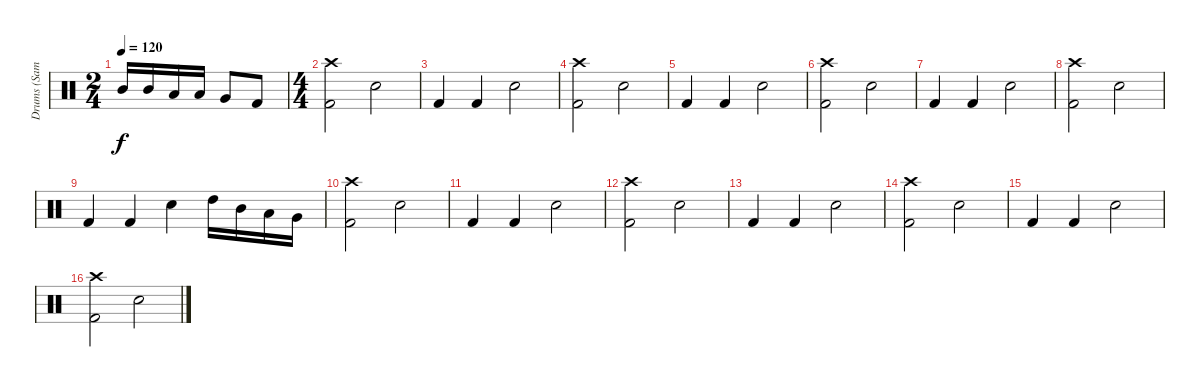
\track ("Drums (Sami Karppinen)" "Drums (Sam") {instrument percussion}
\staff {score}
\articulation defaults
\ts (2 4)
\tempo 120
\clef neutral
\ks c "Mid Tom (hit)".16{dy f} "Mid Tom (hit)".16 "Low Tom (hit)".16 "Low Tom (hit)".16 "Very Low Tom (hit)".8 "Kick (hit) 2".8
|
\ts (4 4)
("Crash high (hit)" "Kick (hit) 2").2 "Electric Snare (hit)".2 |
"Kick (hit) 2".4 "Kick (hit) 2".4 "Electric Snare (hit)".2 |
("Crash high (hit)" "Kick (hit) 2").2 "Electric Snare (hit)".2 |
"Kick (hit) 2".4 "Kick (hit) 2".4 "Electric Snare (hit)".2 |
("Crash high (hit)" "Kick (hit) 2").2 "Electric Snare (hit)".2 |
"Kick (hit) 2".4 "Kick (hit) 2".4 "Electric Snare (hit)".2 |
("Crash high (hit)" "Kick (hit) 2").2 "Electric Snare (hit)".2 |
"Kick (hit) 2".4 "Kick (hit) 2".4 "Electric Snare (hit)".4 "High Tom (hit)".16 "Mid Tom (hit)".16 "Low Tom (hit)".16 "Very Low Tom (hit)".16 |
("Crash high (hit)" "Kick (hit) 2").2 "Electric Snare (hit)".2 |
"Kick (hit) 2".4 "Kick (hit) 2".4 "Electric Snare (hit)".2 |
("Crash high (hit)" "Kick (hit) 2").2 "Electric Snare (hit)".2 |
"Kick (hit) 2".4 "Kick (hit) 2".4 "Electric Snare (hit)".2 |
("Crash high (hit)" "Kick (hit) 2").2 "Electric Snare (hit)".2 |
"Kick (hit) 2".4 "Kick (hit) 2".4 "Electric Snare (hit)".2 |
("Crash high (hit)" "Kick (hit) 2").2 "Electric Snare (hit)".2
